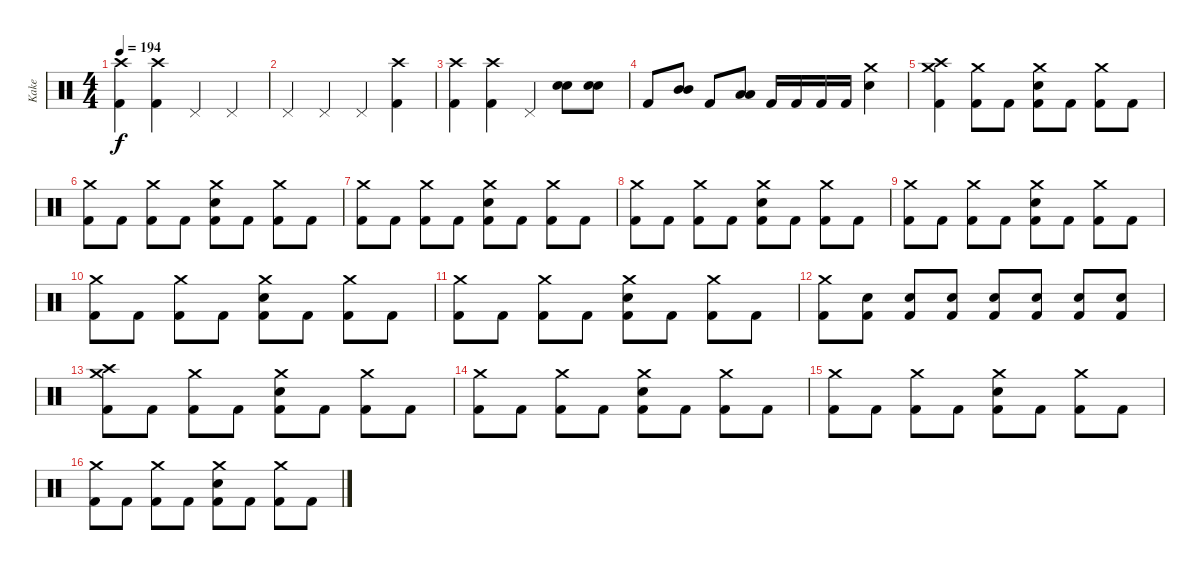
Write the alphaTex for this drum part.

\track ("Kake" "Kake") {instrument percussion}
\staff {score}
\articulation defaults
\ts (4 4)
\tempo 194
\clef neutral
\ks c
("Crash high (hit)" "Kick (hit) 2").4{dy f} ("Crash high (hit)" "Kick (hit) 2").4 "Pedal Hi-Hat (hit)".4 "Pedal Hi-Hat (hit)".4 |
"Pedal Hi-Hat (hit)".4 "Pedal Hi-Hat (hit)".4 "Pedal Hi-Hat (hit)".4 ("Crash high (hit)" "Kick (hit) 2").4 |
("Crash high (hit)" "Kick (hit) 2").4 ("Crash high (hit)" "Kick (hit) 2").4 "Pedal Hi-Hat (hit)".4 ("Electric Snare (hit)" "Electric Snare (hit)").8 ("Electric Snare (hit)" "Electric Snare (hit)").8 |
"Kick (hit) 2".8 ("Mid Tom (hit)" "Mid Tom (hit)").8 "Kick (hit) 2".8 ("Low Tom (hit)" "Low Tom (hit)").8 "Kick (hit) 2".16 "Kick (hit) 2".16 "Kick (hit) 2".16 "Kick (hit) 2".16 ("Crash medium (hit)" "Electric Snare (hit)").4 |
("Crash high (hit)" "Crash medium (hit)" "Kick (hit) 2").4 ("Crash medium (hit)" "Kick (hit) 2").8 "Kick (hit) 2".8 ("Crash medium (hit)" "Electric Snare (hit)" "Kick (hit) 2").8 "Kick (hit) 2".8 ("Crash medium (hit)" "Kick (hit) 2").8 "Kick (hit) 2".8 |
("Crash medium (hit)" "Kick (hit) 2").8 "Kick (hit) 2".8 ("Crash medium (hit)" "Kick (hit) 2").8 "Kick (hit) 2".8 ("Crash medium (hit)" "Electric Snare (hit)" "Kick (hit) 2").8 "Kick (hit) 2".8 ("Crash medium (hit)" "Kick (hit) 2").8 "Kick (hit) 2".8 |
("Crash medium (hit)" "Kick (hit) 2").8 "Kick (hit) 2".8 ("Crash medium (hit)" "Kick (hit) 2").8 "Kick (hit) 2".8 ("Crash medium (hit)" "Electric Snare (hit)" "Kick (hit) 2").8 "Kick (hit) 2".8 ("Crash medium (hit)" "Kick (hit) 2").8 "Kick (hit) 2".8 |
("Crash medium (hit)" "Kick (hit) 2").8 "Kick (hit) 2".8 ("Crash medium (hit)" "Kick (hit) 2").8 "Kick (hit) 2".8 ("Crash medium (hit)" "Electric Snare (hit)" "Kick (hit) 2").8 "Kick (hit) 2".8 ("Crash medium (hit)" "Kick (hit) 2").8 "Kick (hit) 2".8 |
("Crash medium (hit)" "Kick (hit) 2").8 "Kick (hit) 2".8 ("Crash medium (hit)" "Kick (hit) 2").8 "Kick (hit) 2".8 ("Crash medium (hit)" "Electric Snare (hit)" "Kick (hit) 2").8 "Kick (hit) 2".8 ("Crash medium (hit)" "Kick (hit) 2").8 "Kick (hit) 2".8 |
("Crash medium (hit)" "Kick (hit) 2").8 "Kick (hit) 2".8 ("Crash medium (hit)" "Kick (hit) 2").8 "Kick (hit) 2".8 ("Crash medium (hit)" "Electric Snare (hit)" "Kick (hit) 2").8 "Kick (hit) 2".8 ("Crash medium (hit)" "Kick (hit) 2").8 "Kick (hit) 2".8 |
("Crash medium (hit)" "Kick (hit) 2").8 "Kick (hit) 2".8 ("Crash medium (hit)" "Kick (hit) 2").8 "Kick (hit) 2".8 ("Crash medium (hit)" "Electric Snare (hit)" "Kick (hit) 2").8 "Kick (hit) 2".8 ("Crash medium (hit)" "Kick (hit) 2").8 "Kick (hit) 2".8 |
("Crash medium (hit)" "Kick (hit) 2").8 ("Electric Snare (hit)" "Kick (hit) 2").8 ("Electric Snare (hit)" "Kick (hit) 2").8 ("Electric Snare (hit)" "Kick (hit) 2").8 ("Electric Snare (hit)" "Kick (hit) 2").8 ("Electric Snare (hit)" "Kick (hit) 2").8 ("Electric Snare (hit)" "Kick (hit) 2").8 ("Electric Snare (hit)" "Kick (hit) 2").8 |
("Crash high (hit)" "Crash medium (hit)" "Kick (hit) 2").8 "Kick (hit) 2".8 ("Crash medium (hit)" "Kick (hit) 2").8 "Kick (hit) 2".8 ("Crash medium (hit)" "Electric Snare (hit)" "Kick (hit) 2").8 "Kick (hit) 2".8 ("Crash medium (hit)" "Kick (hit) 2").8 "Kick (hit) 2".8 |
("Crash medium (hit)" "Kick (hit) 2").8 "Kick (hit) 2".8 ("Crash medium (hit)" "Kick (hit) 2").8 "Kick (hit) 2".8 ("Crash medium (hit)" "Electric Snare (hit)" "Kick (hit) 2").8 "Kick (hit) 2".8 ("Crash medium (hit)" "Kick (hit) 2").8 "Kick (hit) 2".8 |
("Crash medium (hit)" "Kick (hit) 2").8 "Kick (hit) 2".8 ("Crash medium (hit)" "Kick (hit) 2").8 "Kick (hit) 2".8 ("Crash medium (hit)" "Electric Snare (hit)" "Kick (hit) 2").8 "Kick (hit) 2".8 ("Crash medium (hit)" "Kick (hit) 2").8 "Kick (hit) 2".8 |
("Crash medium (hit)" "Kick (hit) 2").8 "Kick (hit) 2".8 ("Crash medium (hit)" "Kick (hit) 2").8 "Kick (hit) 2".8 ("Crash medium (hit)" "Electric Snare (hit)" "Kick (hit) 2").8 "Kick (hit) 2".8 ("Crash medium (hit)" "Kick (hit) 2").8 "Kick (hit) 2".8
